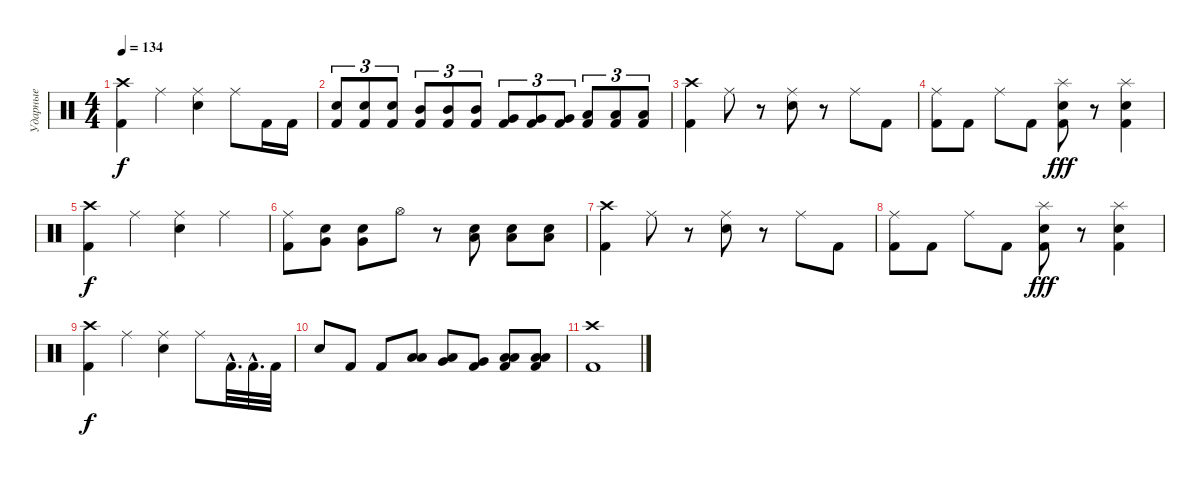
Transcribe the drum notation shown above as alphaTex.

\track ("Ударные" "Ударные") {instrument percussion}
\staff {score}
\articulation defaults
\ts (4 4)
\tempo 134
\clef neutral
\ks c
("Crash high (hit)" "Kick (hit) 2").4{dy f} "Ride (middle)".4 ("Ride (middle)" "Electric Snare (hit)").4 "Ride (middle)".8 "Kick (hit) 2".16 "Kick (hit) 2".16 |
("Electric Snare (hit)" "Kick (hit) 2").8{tu (3 2)} ("Electric Snare (hit)" "Kick (hit) 2").8{tu (3 2)} ("Electric Snare (hit)" "Kick (hit) 2").8{tu (3 2)} ("Mid Tom (hit)" "Kick (hit) 2").8{tu (3 2)} ("Mid Tom (hit)" "Kick (hit) 2").8{tu (3 2)} ("Mid Tom (hit)" "Kick (hit) 2").8{tu (3 2)} ("Very Low Tom (hit)" "Kick (hit) 2").8{tu (3 2)} ("Very Low Tom (hit)" "Kick (hit) 2").8{tu (3 2)} ("Very Low Tom (hit)" "Kick (hit) 2").8{tu (3 2)} ("Low Floor Tom (hit)" "Kick (hit) 2").8{tu (3 2)} ("Low Floor Tom (hit)" "Kick (hit) 2").8{tu (3 2)} ("Low Floor Tom (hit)" "Kick (hit) 2").8{tu (3 2)} |
("Crash high (hit)" "Kick (hit) 2").4 "Ride (middle)".8 r.8 ("Ride (middle)" "Electric Snare (hit)").8 r.8 "Ride (middle)".8 "Kick (hit) 2".8 |
("Ride (middle)" "Kick (hit) 2").8 "Kick (hit) 2".8 "Ride (middle)".8 "Kick (hit) 2".8 ("Splash (hit)" "Electric Snare (hit)" "Kick (hit) 2").8{dy fff} r.8 ("Splash (hit)" "Electric Snare (hit)" "Kick (hit) 2").4 |
("Crash high (hit)" "Kick (hit) 2").4{dy f} "Ride (middle)".4 ("Ride (middle)" "Electric Snare (hit)").4 "Ride (middle)".4 |
("Ride (middle)" "Kick (hit) 2").8 ("Electric Snare (hit)" "Very Low Tom (hit)").8 ("Electric Snare (hit)" "Very Low Tom (hit)").8 "Hi-Hat (open)".8 r.8 ("Electric Snare (hit)" "Low Floor Tom (hit)").8 ("Electric Snare (hit)" "Low Floor Tom (hit)").8 ("Electric Snare (hit)" "Low Floor Tom (hit)").8 |
("Crash high (hit)" "Kick (hit) 2").4 "Ride (middle)".8 r.8 ("Ride (middle)" "Electric Snare (hit)").8 r.8 "Ride (middle)".8 "Kick (hit) 2".8 |
("Ride (middle)" "Kick (hit) 2").8 "Kick (hit) 2".8 "Ride (middle)".8 "Kick (hit) 2".8 ("Splash (hit)" "Electric Snare (hit)" "Kick (hit) 2").8{dy fff} r.8 ("Splash (hit)" "Electric Snare (hit)" "Kick (hit) 2").4 |
("Crash high (hit)" "Kick (hit) 2").4{dy f} "Ride (middle)".4 ("Ride (middle)" "Electric Snare (hit)").4 "Ride (middle)".8 "Kick (hit) 2"{hac}.32{d} "Kick (hit) 2"{hac}.32{d} "Kick (hit) 2".32 |
"Electric Snare (hit)".8 "Kick (hit) 2".8 "Kick (hit) 2".8 ("Low Tom (hit)" "Low Tom (hit)").8 ("Low Tom (hit)" "Very Low Tom (hit)").8 ("Very Low Tom (hit)" "Kick (hit) 2").8 ("Low Floor Tom (hit)" "Low Floor Tom (hit)" "Kick (hit) 2").8 ("Low Floor Tom (hit)" "Low Floor Tom (hit)" "Kick (hit) 2").8 |
("Crash high (hit)" "Kick (hit) 2").1
